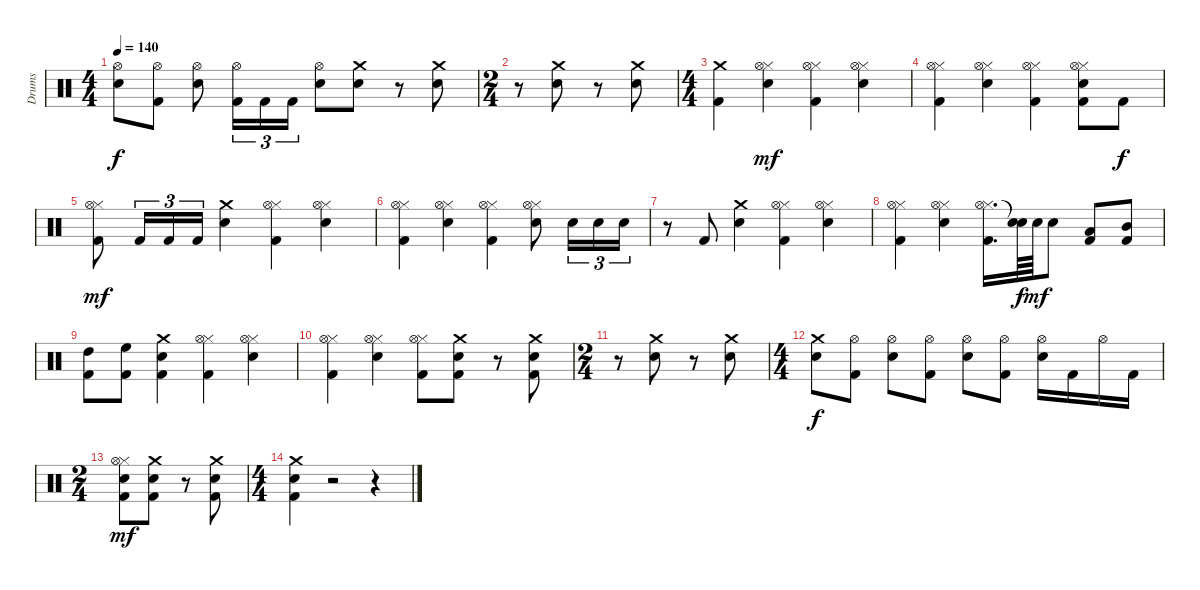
\track ("Drums" "Drums") {instrument percussion}
\staff {score}
\articulation defaults
\ts (4 4)
\tempo 140
\clef neutral
\ks c
("Hi-Hat (open)" "Electric Snare (hit)").8{dy f} ("Hi-Hat (open)" "Kick (hit) 2").8 ("Hi-Hat (open)" "Electric Snare (hit)").8 ("Hi-Hat (open)" "Kick (hit) 2").16{tu (3 2)} "Kick (hit) 2".16{tu (3 2)} "Kick (hit) 2".16{tu (3 2)} ("Hi-Hat (open)" "Electric Snare (hit)").8 ("Crash medium (hit)" "Electric Snare (hit)").8 r.8 ("Crash medium (hit)" "Electric Snare (hit)").8 |
\ts (2 4)
r.8 ("Crash medium (hit)" "Electric Snare (hit)").8 r.8 ("Crash medium (hit)" "Electric Snare (hit)").8 |
\ts (4 4)
("Crash medium (hit)" "Kick (hit) 2").4 ("Hi-Hat (closed)" "Hi-Hat (open)" "Electric Snare (hit)").4{dy mf} ("Hi-Hat (closed)" "Hi-Hat (open)" "Kick (hit) 2").4 ("Hi-Hat (closed)" "Hi-Hat (open)" "Electric Snare (hit)").4 |
("Hi-Hat (closed)" "Hi-Hat (open)" "Kick (hit) 2").4 ("Hi-Hat (closed)" "Hi-Hat (open)" "Electric Snare (hit)").4 ("Hi-Hat (closed)" "Hi-Hat (open)" "Kick (hit) 2").4 ("Hi-Hat (closed)" "Hi-Hat (open)" "Electric Snare (hit)" "Kick (hit) 2").8 "Kick (hit) 2".8{dy f} |
("Hi-Hat (closed)" "Hi-Hat (open)" "Kick (hit) 2").8{dy mf} "Kick (hit) 2".16{tu (3 2)} "Kick (hit) 2".16{tu (3 2)} "Kick (hit) 2".16{tu (3 2)} ("Crash medium (hit)" "Electric Snare (hit)").4 ("Hi-Hat (closed)" "Hi-Hat (open)" "Kick (hit) 2").4 ("Hi-Hat (closed)" "Hi-Hat (open)" "Electric Snare (hit)").4 |
("Hi-Hat (closed)" "Hi-Hat (open)" "Kick (hit) 2").4 ("Hi-Hat (closed)" "Hi-Hat (open)" "Electric Snare (hit)").4 ("Hi-Hat (closed)" "Hi-Hat (open)" "Kick (hit) 2").4 ("Hi-Hat (closed)" "Hi-Hat (open)" "Electric Snare (hit)").8 "Electric Snare (hit)".16{tu (3 2)} "Electric Snare (hit)".16{tu (3 2)} "Electric Snare (hit)".16{tu (3 2)} |
r.8 "Kick (hit) 2".8 ("Crash medium (hit)" "Electric Snare (hit)").4 ("Hi-Hat (closed)" "Hi-Hat (open)" "Kick (hit) 2").4 ("Hi-Hat (closed)" "Hi-Hat (open)" "Electric Snare (hit)").4 |
("Hi-Hat (closed)" "Hi-Hat (open)" "Kick (hit) 2").4 ("Hi-Hat (closed)" "Hi-Hat (open)" "Electric Snare (hit)").4 ("Hi-Hat (closed)" "Hi-Hat (open)" "Kick (hit) 2").16{d} ("Snare (hit)"{t} "Snare (hit)"{t}).64{dy f} "Electric Snare (hit)".64{dy mf} "Electric Snare (hit)".8 ("Low Tom (hit)" "Kick (hit) 2").8 ("Mid Tom (hit)" "Kick (hit) 2").8 |
("High Tom (hit)" "Kick (hit) 2").8 ("High Floor Tom (hit)" "Kick (hit) 2").8 ("Crash medium (hit)" "Electric Snare (hit)" "Kick (hit) 2").4 ("Hi-Hat (closed)" "Hi-Hat (open)" "Kick (hit) 2").4 ("Hi-Hat (closed)" "Hi-Hat (open)" "Electric Snare (hit)").4 |
("Hi-Hat (closed)" "Hi-Hat (open)" "Kick (hit) 2").4 ("Hi-Hat (closed)" "Hi-Hat (open)" "Electric Snare (hit)").4 ("Hi-Hat (closed)" "Hi-Hat (open)" "Kick (hit) 2").8 ("Crash medium (hit)" "Electric Snare (hit)" "Kick (hit) 2").8 r.8 ("Crash medium (hit)" "Electric Snare (hit)" "Kick (hit) 2").8 |
\ts (2 4)
r.8 ("Crash medium (hit)" "Electric Snare (hit)").8 r.8 ("Crash medium (hit)" "Electric Snare (hit)").8 |
\ts (4 4)
("Crash medium (hit)" "Electric Snare (hit)").8{dy f} ("Hi-Hat (open)" "Kick (hit) 2").8 ("Hi-Hat (open)" "Electric Snare (hit)").8 ("Hi-Hat (open)" "Kick (hit) 2").8 ("Hi-Hat (open)" "Electric Snare (hit)").8 ("Hi-Hat (open)" "Kick (hit) 2").8 ("Hi-Hat (open)" "Electric Snare (hit)").16 "Kick (hit) 2".16 "Hi-Hat (open)".16 "Kick (hit) 2".16 |
\ts (2 4)
("Hi-Hat (closed)" "Hi-Hat (open)" "Electric Snare (hit)" "Kick (hit) 2").8{dy mf} ("Crash medium (hit)" "Electric Snare (hit)" "Kick (hit) 2").8 r.8 ("Crash medium (hit)" "Electric Snare (hit)" "Kick (hit) 2").8 |
\ts (4 4)
("Crash medium (hit)" "Electric Snare (hit)" "Kick (hit) 2").4 r.2 r.4
